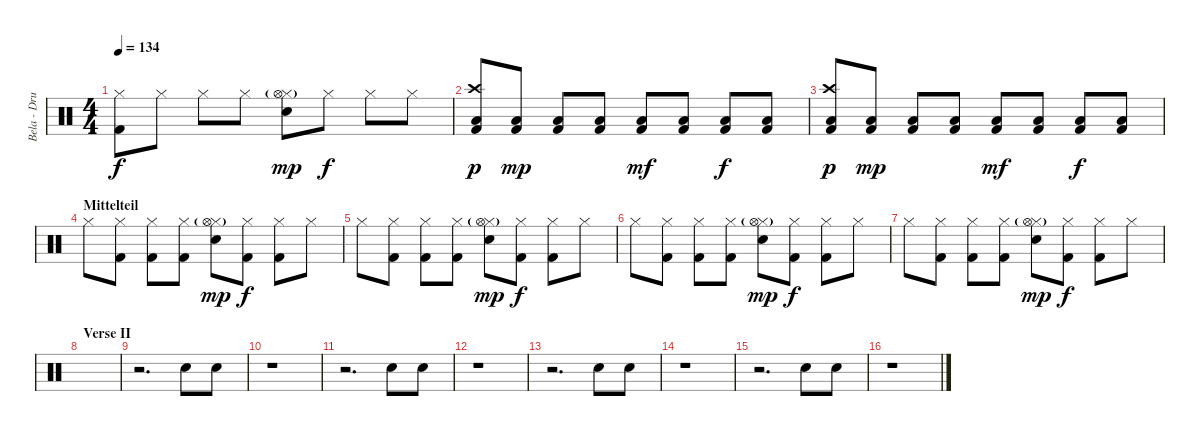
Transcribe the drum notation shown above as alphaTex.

\track ("Bela - Drums" "Bela - Dru") {instrument percussion}
\staff {score}
\articulation defaults
\ts (4 4)
\tempo 134
\clef neutral
\ks c
("Hi-Hat (closed)" "Kick (hit) 2").8{dy f} "Hi-Hat (closed)".8 "Hi-Hat (closed)".8 "Hi-Hat (closed)".8 ("Hi-Hat (closed)" "Hi-Hat (open)"{g} "Electric Snare (hit)").8{dy mp} "Hi-Hat (closed)".8{dy f} "Hi-Hat (closed)".8 "Hi-Hat (closed)".8 |
("Crash high (hit)" "Low Floor Tom (hit)" "Kick (hit) 2").8{dy p} ("Low Floor Tom (hit)" "Kick (hit) 2").8{dy mp} ("Low Floor Tom (hit)" "Kick (hit) 2").8 ("Low Floor Tom (hit)" "Kick (hit) 2").8 ("Low Floor Tom (hit)" "Kick (hit) 2").8{dy mf} ("Low Floor Tom (hit)" "Kick (hit) 2").8 ("Low Floor Tom (hit)" "Kick (hit) 2").8{dy f} ("Low Floor Tom (hit)" "Kick (hit) 2").8 |
("Crash high (hit)" "Low Floor Tom (hit)" "Kick (hit) 2").8{dy p} ("Low Floor Tom (hit)" "Kick (hit) 2").8{dy mp} ("Low Floor Tom (hit)" "Kick (hit) 2").8 ("Low Floor Tom (hit)" "Kick (hit) 2").8 ("Low Floor Tom (hit)" "Kick (hit) 2").8{dy mf} ("Low Floor Tom (hit)" "Kick (hit) 2").8 ("Low Floor Tom (hit)" "Kick (hit) 2").8{dy f} ("Low Floor Tom (hit)" "Kick (hit) 2").8 |
\section ("" "Mittelteil")
"Hi-Hat (closed)".8 ("Hi-Hat (closed)" "Kick (hit) 2").8 ("Hi-Hat (closed)" "Kick (hit) 2").8 ("Hi-Hat (closed)" "Kick (hit) 2").8 ("Hi-Hat (closed)" "Hi-Hat (open)"{g} "Electric Snare (hit)").8{dy mp} ("Hi-Hat (closed)" "Kick (hit) 2").8{dy f} ("Hi-Hat (closed)" "Kick (hit) 2").8 "Hi-Hat (closed)".8 |
"Hi-Hat (closed)".8 ("Hi-Hat (closed)" "Kick (hit) 2").8 ("Hi-Hat (closed)" "Kick (hit) 2").8 ("Hi-Hat (closed)" "Kick (hit) 2").8 ("Hi-Hat (closed)" "Hi-Hat (open)"{g} "Electric Snare (hit)").8{dy mp} ("Hi-Hat (closed)" "Kick (hit) 2").8{dy f} ("Hi-Hat (closed)" "Kick (hit) 2").8 "Hi-Hat (closed)".8 |
"Hi-Hat (closed)".8 ("Hi-Hat (closed)" "Kick (hit) 2").8 ("Hi-Hat (closed)" "Kick (hit) 2").8 ("Hi-Hat (closed)" "Kick (hit) 2").8 ("Hi-Hat (closed)" "Hi-Hat (open)"{g} "Electric Snare (hit)").8{dy mp} ("Hi-Hat (closed)" "Kick (hit) 2").8{dy f} ("Hi-Hat (closed)" "Kick (hit) 2").8 "Hi-Hat (closed)".8 |
"Hi-Hat (closed)".8 ("Hi-Hat (closed)" "Kick (hit) 2").8 ("Hi-Hat (closed)" "Kick (hit) 2").8 ("Hi-Hat (closed)" "Kick (hit) 2").8 ("Hi-Hat (closed)" "Hi-Hat (open)"{g} "Electric Snare (hit)").8{dy mp} ("Hi-Hat (closed)" "Kick (hit) 2").8{dy f} ("Hi-Hat (closed)" "Kick (hit) 2").8 "Hi-Hat (closed)".8 |
\section ("" "Verse II")
|
r.2{d} "Electric Snare (hit)".8 "Electric Snare (hit)".8 |
r.1 |
r.2{d} "Electric Snare (hit)".8 "Electric Snare (hit)".8 |
r.1 |
r.2{d} "Electric Snare (hit)".8 "Electric Snare (hit)".8 |
r.1 |
r.2{d} "Electric Snare (hit)".8 "Electric Snare (hit)".8 |
r.1
